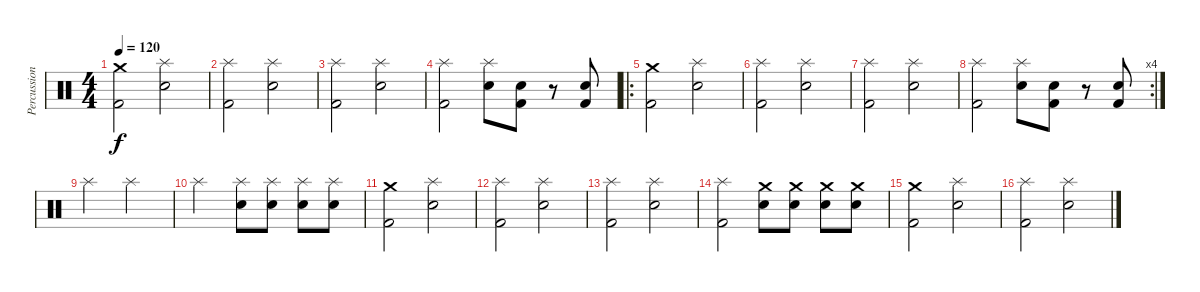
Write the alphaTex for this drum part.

\track ("Percussion" "Percussion") {instrument percussion}
\staff {score}
\articulation defaults
\ts (4 4)
\tempo 120
\clef neutral
\ks c
("Crash medium (hit)" "Kick (hit) 2").2{dy f} ("Splash (hit)" "Electric Snare (hit)").2 |
("Splash (hit)" "Kick (hit) 2").2 ("Splash (hit)" "Electric Snare (hit)").2 |
("Splash (hit)" "Kick (hit) 2").2 ("Splash (hit)" "Electric Snare (hit)").2 |
("Splash (hit)" "Kick (hit) 2").2 ("Splash (hit)" "Electric Snare (hit)").8 ("Electric Snare (hit)" "Kick (hit) 2").8 r.8 ("Electric Snare (hit)" "Kick (hit) 2").8 |
\ro
("Crash medium (hit)" "Kick (hit) 2").2 ("Splash (hit)" "Electric Snare (hit)").2 |
("Splash (hit)" "Kick (hit) 2").2 ("Splash (hit)" "Electric Snare (hit)").2 |
("Splash (hit)" "Kick (hit) 2").2 ("Splash (hit)" "Electric Snare (hit)").2 |
\rc 4
("Splash (hit)" "Kick (hit) 2").2 ("Splash (hit)" "Electric Snare (hit)").8 ("Electric Snare (hit)" "Kick (hit) 2").8 r.8 ("Electric Snare (hit)" "Kick (hit) 2").8 |
"Splash (hit)".2 "Splash (hit)".2 |
"Splash (hit)".2 ("Splash (hit)" "Electric Snare (hit)").8 ("Splash (hit)" "Electric Snare (hit)").8 ("Splash (hit)" "Electric Snare (hit)").8 ("Splash (hit)" "Electric Snare (hit)").8 |
("Crash medium (hit)" "Kick (hit) 2").2 ("Splash (hit)" "Electric Snare (hit)").2 |
("Splash (hit)" "Kick (hit) 2").2 ("Splash (hit)" "Electric Snare (hit)").2 |
("Splash (hit)" "Kick (hit) 2").2 ("Splash (hit)" "Electric Snare (hit)").2 |
("Splash (hit)" "Kick (hit) 2").2 ("Crash medium (hit)" "Electric Snare (hit)").8 ("Crash medium (hit)" "Electric Snare (hit)").8 ("Crash medium (hit)" "Electric Snare (hit)").8 ("Crash medium (hit)" "Electric Snare (hit)").8 |
("Crash medium (hit)" "Kick (hit) 2").2 ("Splash (hit)" "Electric Snare (hit)").2 |
("Splash (hit)" "Kick (hit) 2").2 ("Splash (hit)" "Electric Snare (hit)").2
